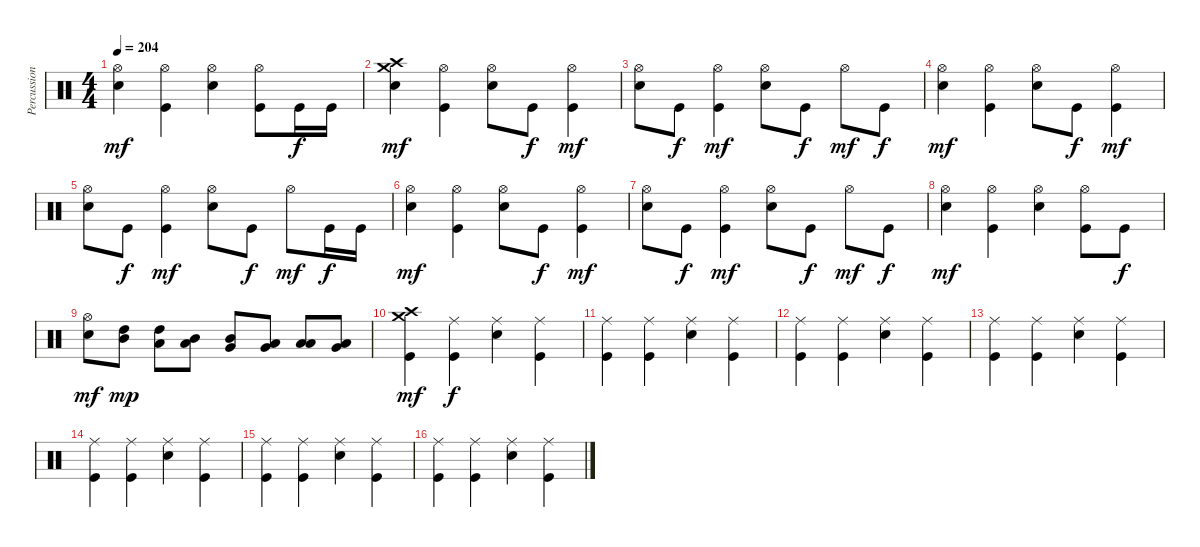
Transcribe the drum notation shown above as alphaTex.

\track ("Percussions" "Percussion") {instrument percussion}
\staff {score}
\articulation defaults
\ts (4 4)
\tempo 204
\clef neutral
\ks c
("Electric Snare (hit)" "Hi-Hat (open)").4{dy mf} ("Kick (hit)" "Hi-Hat (open)").4 ("Electric Snare (hit)" "Hi-Hat (open)").4 ("Kick (hit)" "Hi-Hat (open)").8 "Kick (hit)".16{dy f} "Kick (hit)".16 |
("Electric Snare (hit)" "Crash medium (hit)" "Crash high (hit)").4{dy mf} ("Kick (hit)" "Hi-Hat (open)").4 ("Electric Snare (hit)" "Hi-Hat (open)").8 "Kick (hit)".8{dy f} ("Kick (hit)" "Hi-Hat (open)").4{dy mf} |
("Electric Snare (hit)" "Hi-Hat (open)").8 "Kick (hit)".8{dy f} ("Kick (hit)" "Hi-Hat (open)").4{dy mf} ("Electric Snare (hit)" "Hi-Hat (open)").8 "Kick (hit)".8{dy f} "Hi-Hat (open)".8{dy mf} "Kick (hit)".8{dy f} |
("Electric Snare (hit)" "Hi-Hat (open)").4{dy mf} ("Kick (hit)" "Hi-Hat (open)").4 ("Electric Snare (hit)" "Hi-Hat (open)").8 "Kick (hit)".8{dy f} ("Kick (hit)" "Hi-Hat (open)").4{dy mf} |
("Electric Snare (hit)" "Hi-Hat (open)").8 "Kick (hit)".8{dy f} ("Kick (hit)" "Hi-Hat (open)").4{dy mf} ("Electric Snare (hit)" "Hi-Hat (open)").8 "Kick (hit)".8{dy f} "Hi-Hat (open)".8{dy mf} "Kick (hit)".16{dy f} "Kick (hit)".16 |
("Electric Snare (hit)" "Hi-Hat (open)").4{dy mf} ("Kick (hit)" "Hi-Hat (open)").4 ("Electric Snare (hit)" "Hi-Hat (open)").8 "Kick (hit)".8{dy f} ("Kick (hit)" "Hi-Hat (open)").4{dy mf} |
("Electric Snare (hit)" "Hi-Hat (open)").8 "Kick (hit)".8{dy f} ("Kick (hit)" "Hi-Hat (open)").4{dy mf} ("Electric Snare (hit)" "Hi-Hat (open)").8 "Kick (hit)".8{dy f} "Hi-Hat (open)".8{dy mf} "Kick (hit)".8{dy f} |
("Electric Snare (hit)" "Hi-Hat (open)").4{dy mf} ("Kick (hit)" "Hi-Hat (open)").4 ("Electric Snare (hit)" "Hi-Hat (open)").4 ("Kick (hit)" "Hi-Hat (open)").8 "Kick (hit)".8{dy f} |
("Electric Snare (hit)" "Hi-Hat (open)").8{dy mf} ("Mid Tom (hit)" "High Tom (hit)").8{dy mp} ("Low Tom (hit)" "High Tom (hit)").8 ("Low Tom (hit)" "Mid Tom (hit)").8 ("Very Low Tom (hit)" "Mid Tom (hit)").8 ("Very Low Tom (hit)" "Low Tom (hit)").8 ("Low Floor Tom (hit)" "Low Tom (hit)").8 ("Low Floor Tom (hit)" "Very Low Tom (hit)").8 |
("Kick (hit)" "Crash high (hit)" "Crash medium (hit)").4{dy mf} ("Kick (hit)" "Ride (middle)").4{dy f} ("Electric Snare (hit)" "Ride (middle)").4 ("Kick (hit)" "Ride (middle)").4 |
("Kick (hit)" "Ride (middle)").4 ("Kick (hit)" "Ride (middle)").4 ("Electric Snare (hit)" "Ride (middle)").4 ("Kick (hit)" "Ride (middle)").4 |
("Kick (hit)" "Ride (middle)").4 ("Kick (hit)" "Ride (middle)").4 ("Electric Snare (hit)" "Ride (middle)").4 ("Kick (hit)" "Ride (middle)").4 |
("Kick (hit)" "Ride (middle)").4 ("Kick (hit)" "Ride (middle)").4 ("Electric Snare (hit)" "Ride (middle)").4 ("Kick (hit)" "Ride (middle)").4 |
("Kick (hit)" "Ride (middle)").4 ("Kick (hit)" "Ride (middle)").4 ("Electric Snare (hit)" "Ride (middle)").4 ("Kick (hit)" "Ride (middle)").4 |
("Kick (hit)" "Ride (middle)").4 ("Kick (hit)" "Ride (middle)").4 ("Electric Snare (hit)" "Ride (middle)").4 ("Kick (hit)" "Ride (middle)").4 |
("Kick (hit)" "Ride (middle)").4 ("Kick (hit)" "Ride (middle)").4 ("Electric Snare (hit)" "Ride (middle)").4 ("Kick (hit)" "Ride (middle)").4
